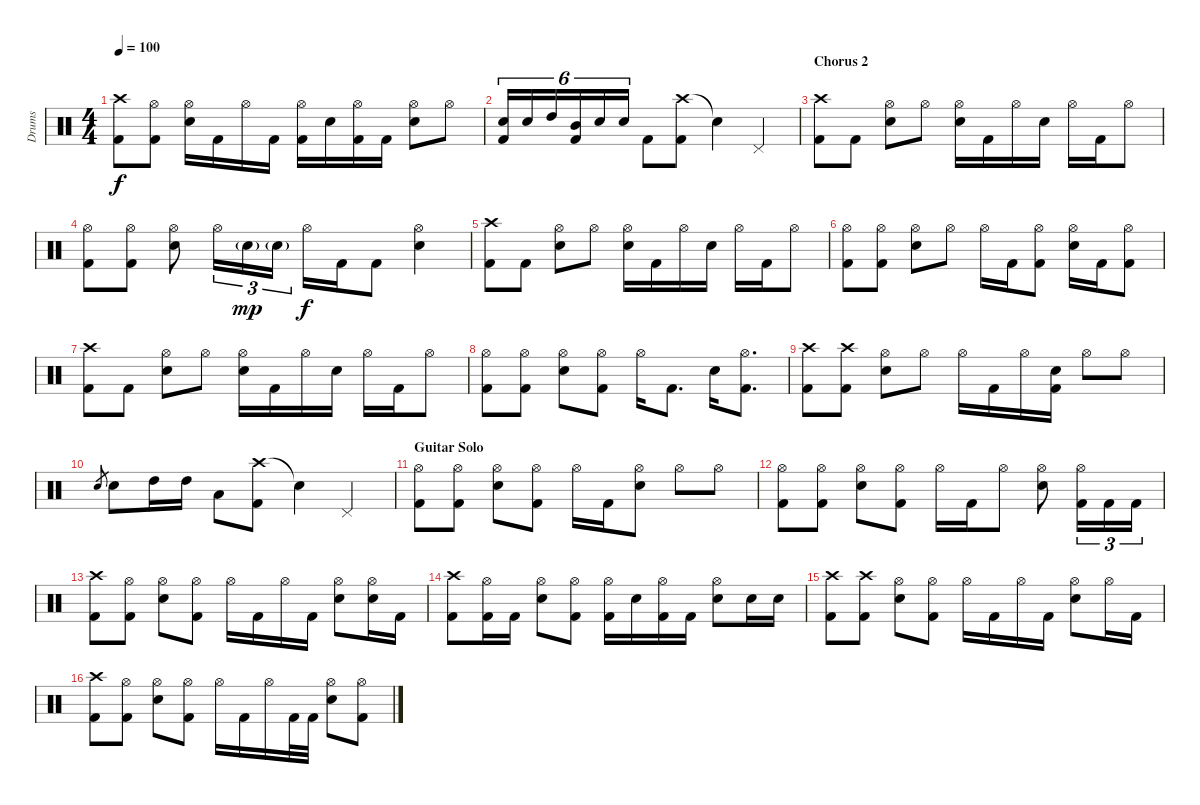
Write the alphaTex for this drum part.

\track ("Drums" "Drums") {instrument percussion}
\staff {score}
\articulation defaults
\ts (4 4)
\tempo 100
\clef neutral
\ks c
("Crash high (hit)" "Kick (hit) 2").8{dy f} ("Hi-Hat (open)" "Kick (hit) 2").8 ("Hi-Hat (open)" "Electric Snare (hit)").16 "Kick (hit) 2".16 "Hi-Hat (open)".16 "Kick (hit) 2".16 ("Hi-Hat (open)" "Kick (hit) 2").16 "Electric Snare (hit)".16 ("Hi-Hat (open)" "Kick (hit) 2").16 "Kick (hit) 2".16 ("Hi-Hat (open)" "Electric Snare (hit)").8 "Hi-Hat (open)".8 |
("Electric Snare (hit)" "Kick (hit) 2").16{tu (6 4)} "Electric Snare (hit)".16{tu (6 4)} "High Tom (hit)".16{tu (6 4)} ("Mid Tom (hit)" "Kick (hit) 2").16{tu (6 4)} "Electric Snare (hit)".16{tu (6 4)} "Electric Snare (hit)".16{tu (6 4)} "Kick (hit) 2".8 ("Crash high (hit)" "Kick (hit) 2").8 "Snare (hit)"{t}.4 "Pedal Hi-Hat (hit)".4 |
\section ("" "Chorus 2")
("Crash high (hit)" "Kick (hit) 2").8 "Kick (hit) 2".8 ("Hi-Hat (open)" "Electric Snare (hit)").8 "Hi-Hat (open)".8 ("Hi-Hat (open)" "Electric Snare (hit)").16 "Kick (hit) 2".16 "Hi-Hat (open)".16 "Electric Snare (hit)".16 "Hi-Hat (open)".16 "Kick (hit) 2".16 "Hi-Hat (open)".8 |
("Hi-Hat (open)" "Kick (hit) 2").8 ("Hi-Hat (open)" "Kick (hit) 2").8 ("Hi-Hat (open)" "Electric Snare (hit)").8 "Hi-Hat (open)".16{tu (3 2)} "Electric Snare (hit)"{g}.16{tu (3 2) dy mp} "Electric Snare (hit)"{g}.16{tu (3 2)} "Hi-Hat (open)".16{dy f} "Kick (hit) 2".16 "Kick (hit) 2".8 ("Hi-Hat (open)" "Electric Snare (hit)").4 |
("Crash high (hit)" "Kick (hit) 2").8 "Kick (hit) 2".8 ("Hi-Hat (open)" "Electric Snare (hit)").8 "Hi-Hat (open)".8 ("Hi-Hat (open)" "Electric Snare (hit)").16 "Kick (hit) 2".16 "Hi-Hat (open)".16 "Electric Snare (hit)".16 "Hi-Hat (open)".16 "Kick (hit) 2".16 "Hi-Hat (open)".8 |
("Hi-Hat (open)" "Kick (hit) 2").8 ("Hi-Hat (open)" "Kick (hit) 2").8 ("Hi-Hat (open)" "Electric Snare (hit)").8 "Hi-Hat (open)".8 "Hi-Hat (open)".16 "Kick (hit) 2".16 ("Hi-Hat (open)" "Kick (hit) 2").8 ("Hi-Hat (open)" "Electric Snare (hit)").16 "Kick (hit) 2".16 ("Hi-Hat (open)" "Kick (hit) 2").8 |
("Crash high (hit)" "Kick (hit) 2").8 "Kick (hit) 2".8 ("Hi-Hat (open)" "Electric Snare (hit)").8 "Hi-Hat (open)".8 ("Hi-Hat (open)" "Electric Snare (hit)").16 "Kick (hit) 2".16 "Hi-Hat (open)".16 "Electric Snare (hit)".16 "Hi-Hat (open)".16 "Kick (hit) 2".16 "Hi-Hat (open)".8 |
("Hi-Hat (open)" "Kick (hit) 2").8 ("Hi-Hat (open)" "Kick (hit) 2").8 ("Hi-Hat (open)" "Electric Snare (hit)").8 ("Hi-Hat (open)" "Kick (hit) 2").8 "Hi-Hat (open)".16 "Kick (hit) 2".8{d} "Electric Snare (hit)".16 ("Hi-Hat (open)" "Kick (hit) 2").8{d} |
("Crash high (hit)" "Kick (hit) 2").8 ("Crash high (hit)" "Kick (hit) 2").8 ("Hi-Hat (open)" "Electric Snare (hit)").8 "Hi-Hat (open)".8 "Hi-Hat (open)".16 "Kick (hit) 2".16 "Hi-Hat (open)".16 ("Electric Snare (hit)" "Kick (hit) 2").16 "Hi-Hat (open)".8 "Hi-Hat (open)".8 |
"Electric Snare (hit)".8{gr} "Electric Snare (hit)".8 "High Tom (hit)".16 "High Tom (hit)".16 "Low Tom (hit)".8 ("Crash high (hit)" "Kick (hit) 2").8 "Snare (hit)"{t}.4 "Pedal Hi-Hat (hit)".4 |
\section ("" "Guitar Solo")
("Hi-Hat (open)" "Kick (hit) 2").8 ("Hi-Hat (open)" "Kick (hit) 2").8 ("Hi-Hat (open)" "Electric Snare (hit)").8 ("Hi-Hat (open)" "Kick (hit) 2").8 "Hi-Hat (open)".16 "Kick (hit) 2".16 ("Hi-Hat (open)" "Electric Snare (hit)").8 "Hi-Hat (open)".8 "Hi-Hat (open)".8 |
("Hi-Hat (open)" "Kick (hit) 2").8 ("Hi-Hat (open)" "Kick (hit) 2").8 ("Hi-Hat (open)" "Electric Snare (hit)").8 ("Hi-Hat (open)" "Kick (hit) 2").8 "Hi-Hat (open)".16 "Kick (hit) 2".16 "Hi-Hat (open)".8 ("Hi-Hat (open)" "Electric Snare (hit)").8 ("Hi-Hat (open)" "Kick (hit) 2").16{tu (3 2)} "Kick (hit) 2".16{tu (3 2)} "Kick (hit) 2".16{tu (3 2)} |
("Crash high (hit)" "Kick (hit) 2").8 ("Hi-Hat (open)" "Kick (hit) 2").8 ("Hi-Hat (open)" "Electric Snare (hit)").8 ("Hi-Hat (open)" "Kick (hit) 2").8 "Hi-Hat (open)".16 "Kick (hit) 2".16 "Hi-Hat (open)".16 "Kick (hit) 2".16 ("Hi-Hat (open)" "Electric Snare (hit)").8 ("Hi-Hat (open)" "Electric Snare (hit)").16 "Kick (hit) 2".16 |
("Crash high (hit)" "Kick (hit) 2").8 ("Hi-Hat (open)" "Kick (hit) 2").16 "Kick (hit) 2".16 ("Hi-Hat (open)" "Electric Snare (hit)").8 ("Hi-Hat (open)" "Kick (hit) 2").8 ("Hi-Hat (open)" "Kick (hit) 2").16 "Electric Snare (hit)".16 ("Hi-Hat (open)" "Kick (hit) 2").16 "Kick (hit) 2".16 ("Hi-Hat (open)" "Electric Snare (hit)").8 "Electric Snare (hit)".16 "Electric Snare (hit)".16 |
("Crash high (hit)" "Kick (hit) 2").8 ("Crash high (hit)" "Kick (hit) 2").8 ("Hi-Hat (open)" "Electric Snare (hit)").8 ("Hi-Hat (open)" "Kick (hit) 2").8 "Hi-Hat (open)".16 "Kick (hit) 2".16 "Hi-Hat (open)".16 "Kick (hit) 2".16 ("Hi-Hat (open)" "Electric Snare (hit)").8 "Hi-Hat (open)".16 "Kick (hit) 2".16 |
("Crash high (hit)" "Kick (hit) 2").8 ("Hi-Hat (open)" "Kick (hit) 2").8 ("Hi-Hat (open)" "Electric Snare (hit)").8 ("Hi-Hat (open)" "Kick (hit) 2").8 "Hi-Hat (open)".16 "Kick (hit) 2".16 "Hi-Hat (open)".16 "Kick (hit) 2".32 "Kick (hit) 2".32 ("Hi-Hat (open)" "Electric Snare (hit)").8 ("Hi-Hat (open)" "Kick (hit) 2").8
